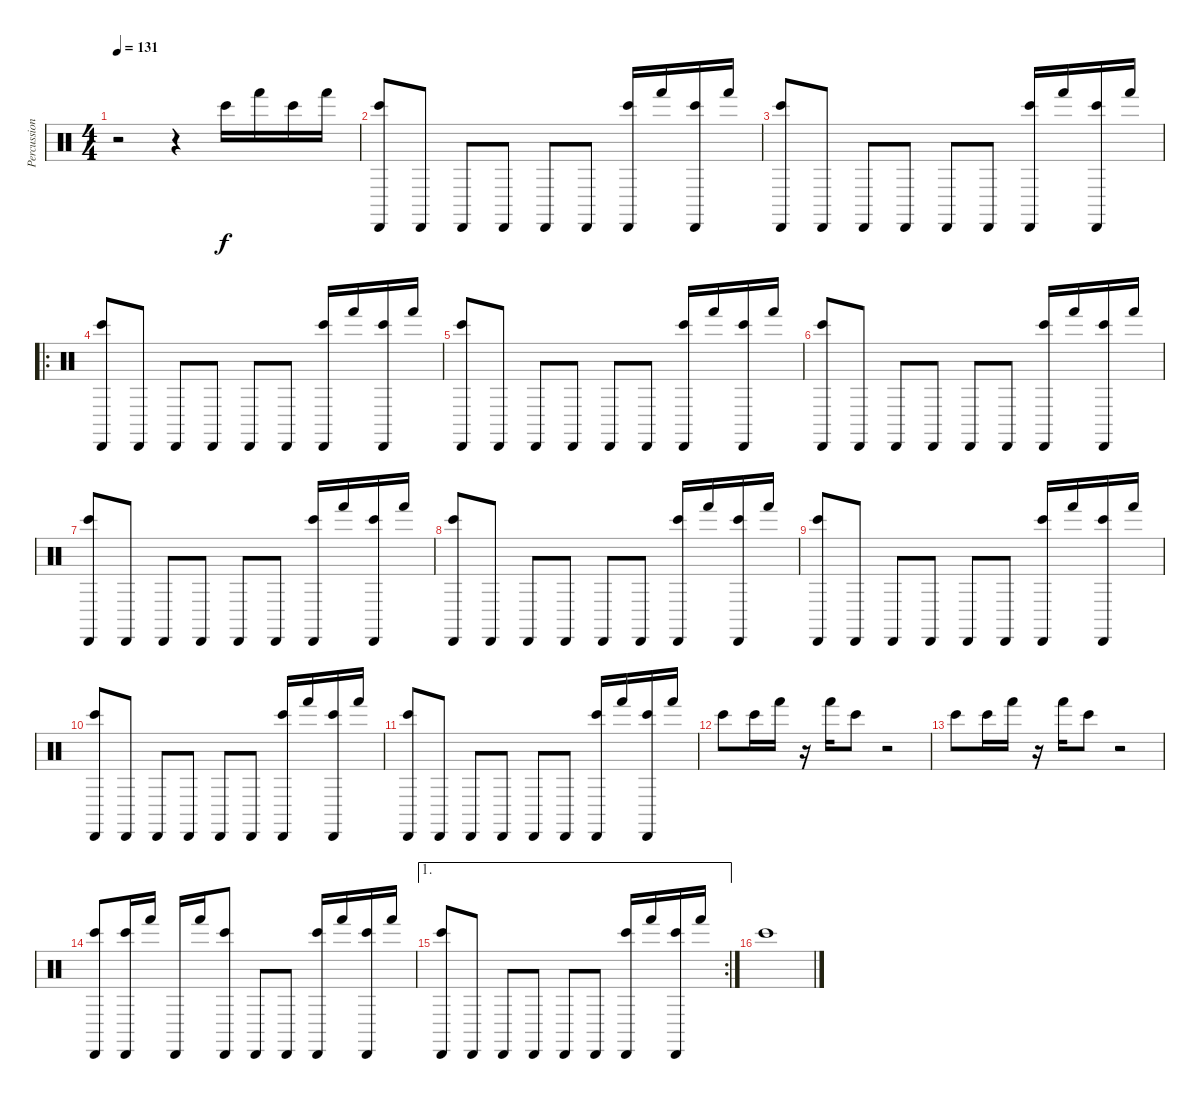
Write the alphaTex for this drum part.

\track ("Percussions" "Percussion") {instrument percussion}
\staff {score}
\articulation defaults
\ts (4 4)
\tempo 131
\clef neutral
\ks c
r.2{dy f} r.4 "Bongo High (hit)".16 "Hand (hit)".16 "Bongo High (hit)".16 "Hand (hit)".16 |
("Bongo High (hit)" "Cabasa (hit)").8 "Cabasa (hit)".8 "Cabasa (hit)".8 "Cabasa (hit)".8 "Cabasa (hit)".8 "Cabasa (hit)".8 ("Bongo High (hit)" "Cabasa (hit)").16 "Hand (hit)".16 ("Bongo High (hit)" "Cabasa (hit)").16 "Hand (hit)".16 |
("Bongo High (hit)" "Cabasa (hit)").8 "Cabasa (hit)".8 "Cabasa (hit)".8 "Cabasa (hit)".8 "Cabasa (hit)".8 "Cabasa (hit)".8 ("Bongo High (hit)" "Cabasa (hit)").16 "Hand (hit)".16 ("Bongo High (hit)" "Cabasa (hit)").16 "Hand (hit)".16 |
\ro
("Bongo High (hit)" "Cabasa (hit)").8 "Cabasa (hit)".8 "Cabasa (hit)".8 "Cabasa (hit)".8 "Cabasa (hit)".8 "Cabasa (hit)".8 ("Bongo High (hit)" "Cabasa (hit)").16 "Hand (hit)".16 ("Bongo High (hit)" "Cabasa (hit)").16 "Hand (hit)".16 |
("Bongo High (hit)" "Cabasa (hit)").8 "Cabasa (hit)".8 "Cabasa (hit)".8 "Cabasa (hit)".8 "Cabasa (hit)".8 "Cabasa (hit)".8 ("Bongo High (hit)" "Cabasa (hit)").16 "Hand (hit)".16 ("Bongo High (hit)" "Cabasa (hit)").16 "Hand (hit)".16 |
("Bongo High (hit)" "Cabasa (hit)").8 "Cabasa (hit)".8 "Cabasa (hit)".8 "Cabasa (hit)".8 "Cabasa (hit)".8 "Cabasa (hit)".8 ("Bongo High (hit)" "Cabasa (hit)").16 "Hand (hit)".16 ("Bongo High (hit)" "Cabasa (hit)").16 "Hand (hit)".16 |
("Bongo High (hit)" "Cabasa (hit)").8 "Cabasa (hit)".8 "Cabasa (hit)".8 "Cabasa (hit)".8 "Cabasa (hit)".8 "Cabasa (hit)".8 ("Bongo High (hit)" "Cabasa (hit)").16 "Hand (hit)".16 ("Bongo High (hit)" "Cabasa (hit)").16 "Hand (hit)".16 |
("Bongo High (hit)" "Cabasa (hit)").8 "Cabasa (hit)".8 "Cabasa (hit)".8 "Cabasa (hit)".8 "Cabasa (hit)".8 "Cabasa (hit)".8 ("Bongo High (hit)" "Cabasa (hit)").16 "Hand (hit)".16 ("Bongo High (hit)" "Cabasa (hit)").16 "Hand (hit)".16 |
("Bongo High (hit)" "Cabasa (hit)").8 "Cabasa (hit)".8 "Cabasa (hit)".8 "Cabasa (hit)".8 "Cabasa (hit)".8 "Cabasa (hit)".8 ("Bongo High (hit)" "Cabasa (hit)").16 "Hand (hit)".16 ("Bongo High (hit)" "Cabasa (hit)").16 "Hand (hit)".16 |
("Bongo High (hit)" "Cabasa (hit)").8 "Cabasa (hit)".8 "Cabasa (hit)".8 "Cabasa (hit)".8 "Cabasa (hit)".8 "Cabasa (hit)".8 ("Bongo High (hit)" "Cabasa (hit)").16 "Hand (hit)".16 ("Bongo High (hit)" "Cabasa (hit)").16 "Hand (hit)".16 |
("Bongo High (hit)" "Cabasa (hit)").8 "Cabasa (hit)".8 "Cabasa (hit)".8 "Cabasa (hit)".8 "Cabasa (hit)".8 "Cabasa (hit)".8 ("Bongo High (hit)" "Cabasa (hit)").16 "Hand (hit)".16 ("Bongo High (hit)" "Cabasa (hit)").16 "Hand (hit)".16 |
"Bongo High (hit)".8 "Bongo High (hit)".16 "Hand (hit)".16 r.16 "Hand (hit)".16 "Bongo High (hit)".8 r.2 |
"Bongo High (hit)".8 "Bongo High (hit)".16 "Hand (hit)".16 r.16 "Hand (hit)".16 "Bongo High (hit)".8 r.2 |
("Bongo High (hit)" "Cabasa (hit)").8 ("Bongo High (hit)" "Cabasa (hit)").16 "Hand (hit)".16 "Cabasa (hit)".16 "Hand (hit)".16 ("Bongo High (hit)" "Cabasa (hit)").8 "Cabasa (hit)".8 "Cabasa (hit)".8 ("Bongo High (hit)" "Cabasa (hit)").16 "Hand (hit)".16 ("Bongo High (hit)" "Cabasa (hit)").16 "Hand (hit)".16 |
\ae 1
\rc 2
("Bongo High (hit)" "Cabasa (hit)").8 "Cabasa (hit)".8 "Cabasa (hit)".8 "Cabasa (hit)".8 "Cabasa (hit)".8 "Cabasa (hit)".8 ("Bongo High (hit)" "Cabasa (hit)").16 "Hand (hit)".16 ("Bongo High (hit)" "Cabasa (hit)").16 "Hand (hit)".16 |
"Bongo High (hit)".1
